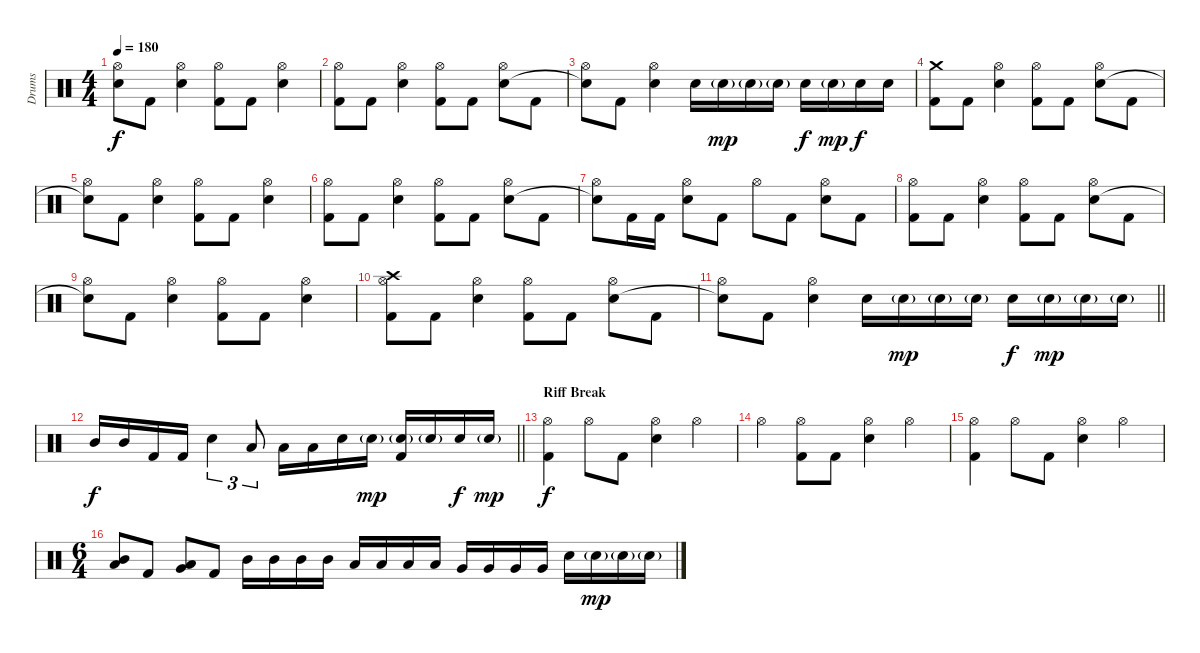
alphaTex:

\track ("Drums" "Drums") {instrument percussion}
\staff {score}
\articulation defaults
\ts (4 4)
\tempo 180
\clef neutral
\ks c
("Hi-Hat (open)" "Snare (hit)"{t}).8{dy f} "Kick (hit) 2".8 ("Hi-Hat (open)" "Snare (hit) 2").4 ("Hi-Hat (open)" "Kick (hit) 2").8 "Kick (hit) 2".8 ("Hi-Hat (open)" "Snare (hit) 2").4 |
("Hi-Hat (open)" "Kick (hit) 2").8 "Kick (hit) 2".8 ("Hi-Hat (open)" "Snare (hit) 2").4 ("Hi-Hat (open)" "Kick (hit) 2").8 "Kick (hit) 2".8 ("Hi-Hat (open)" "Snare (hit) 2").8 "Kick (hit) 2".8 |
("Hi-Hat (open)" "Snare (hit)"{t}).8 "Kick (hit) 2".8 ("Hi-Hat (open)" "Snare (hit) 2").4 "Snare (hit) 2".16 "Snare (hit) 2"{g}.16{dy mp} "Snare (hit) 2"{g}.16 "Snare (hit) 2"{g}.16 "Snare (hit) 2".16{dy f} "Snare (hit) 2"{g}.16{dy mp} "Snare (hit) 2".16{dy f} "Snare (hit) 2".16 |
("Crash medium (hit)" "Kick (hit) 2").8 "Kick (hit) 2".8 ("Hi-Hat (open)" "Snare (hit) 2").4 ("Hi-Hat (open)" "Kick (hit) 2").8 "Kick (hit) 2".8 ("Hi-Hat (open)" "Snare (hit) 2").8 "Kick (hit) 2".8 |
("Hi-Hat (open)" "Snare (hit)"{t}).8 "Kick (hit) 2".8 ("Hi-Hat (open)" "Snare (hit) 2").4 ("Hi-Hat (open)" "Kick (hit) 2").8 "Kick (hit) 2".8 ("Hi-Hat (open)" "Snare (hit) 2").4 |
("Hi-Hat (open)" "Kick (hit) 2").8 "Kick (hit) 2".8 ("Hi-Hat (open)" "Snare (hit) 2").4 ("Hi-Hat (open)" "Kick (hit) 2").8 "Kick (hit) 2".8 ("Hi-Hat (open)" "Snare (hit) 2").8 "Kick (hit) 2".8 |
("Hi-Hat (open)" "Snare (hit)"{t}).8 "Kick (hit) 2".16 "Kick (hit) 2".16 ("Hi-Hat (open)" "Snare (hit) 2").8 "Kick (hit) 2".8 "Hi-Hat (open)".8 "Kick (hit) 2".8 ("Hi-Hat (open)" "Snare (hit) 2").8 "Kick (hit) 2".8 |
("Hi-Hat (open)" "Kick (hit) 2").8 "Kick (hit) 2".8 ("Hi-Hat (open)" "Snare (hit) 2").4 ("Hi-Hat (open)" "Kick (hit) 2").8 "Kick (hit) 2".8 ("Hi-Hat (open)" "Snare (hit) 2").8 "Kick (hit) 2".8 |
("Hi-Hat (open)" "Snare (hit)"{t}).8 "Kick (hit) 2".8 ("Hi-Hat (open)" "Snare (hit) 2").4 ("Hi-Hat (open)" "Kick (hit) 2").8 "Kick (hit) 2".8 ("Hi-Hat (open)" "Snare (hit) 2").4 |
("Hi-Hat (open)" "Crash high (hit)" "Kick (hit) 2").8 "Kick (hit) 2".8 ("Hi-Hat (open)" "Snare (hit) 2").4 ("Hi-Hat (open)" "Kick (hit) 2").8 "Kick (hit) 2".8 ("Hi-Hat (open)" "Snare (hit) 2").8 "Kick (hit) 2".8 |
\barLineRight lightlight
("Hi-Hat (open)" "Snare (hit)"{t}).8 "Kick (hit) 2".8 ("Hi-Hat (open)" "Snare (hit) 2").4 "Snare (hit) 2".16 "Snare (hit) 2"{g}.16{dy mp} "Snare (hit) 2"{g}.16 "Snare (hit) 2"{g}.16 "Snare (hit) 2".16{dy f} "Snare (hit) 2"{g}.16{dy mp} "Snare (hit) 2"{g}.16 "Snare (hit) 2"{g}.16 |
\barLineRight lightlight "Mid Tom (hit)".16{dy f} "Mid Tom (hit)".16 "Kick (hit) 2".16 "Kick (hit) 2".16 "Snare (hit) 2".4{tu (3 2)} "Low Tom (hit)".8{tu (3 2)} "Low Tom (hit)".16 "Low Tom (hit)".16 "Snare (hit) 2".16 "Snare (hit) 2"{g}.16{dy mp}
("Snare (hit) 2"{g} "Kick (hit) 2").16 "Snare (hit) 2"{g}.16 "Snare (hit) 2".16{dy f} "Snare (hit) 2"{g}.16{dy mp} |
\section ("" "Riff Break")
("Hi-Hat (open)" "Kick (hit) 2").4{dy f} "Hi-Hat (open)".8 "Kick (hit) 2".8 ("Hi-Hat (open)" "Snare (hit) 2").4 "Hi-Hat (open)".4 |
"Hi-Hat (open)".4 ("Hi-Hat (open)" "Kick (hit) 2").8 "Kick (hit) 2".8 ("Hi-Hat (open)" "Snare (hit) 2").4 "Hi-Hat (open)".4 |
("Hi-Hat (open)" "Kick (hit) 2").4 "Hi-Hat (open)".8 "Kick (hit) 2".8 ("Hi-Hat (open)" "Snare (hit) 2").4 "Hi-Hat (open)".4 |
\ts (6 4)
("Mid Tom (hit)" "Low Tom (hit)").8 "Kick (hit) 2".8 ("Low Tom (hit)" "Very Low Tom (hit)").8 "Kick (hit) 2".8 "Mid Tom (hit)".16 "Mid Tom (hit)".16 "Mid Tom (hit)".16 "Mid Tom (hit)".16 "Low Tom (hit)".16 "Low Tom (hit)".16 "Low Tom (hit)".16 "Low Tom (hit)".16 "Very Low Tom (hit)".16 "Very Low Tom (hit)".16 "Very Low Tom (hit)".16 "Very Low Tom (hit)".16 "Snare (hit) 2".16 "Snare (hit) 2"{g}.16{dy mp} "Snare (hit) 2"{g}.16 "Snare (hit) 2"{g}.16
